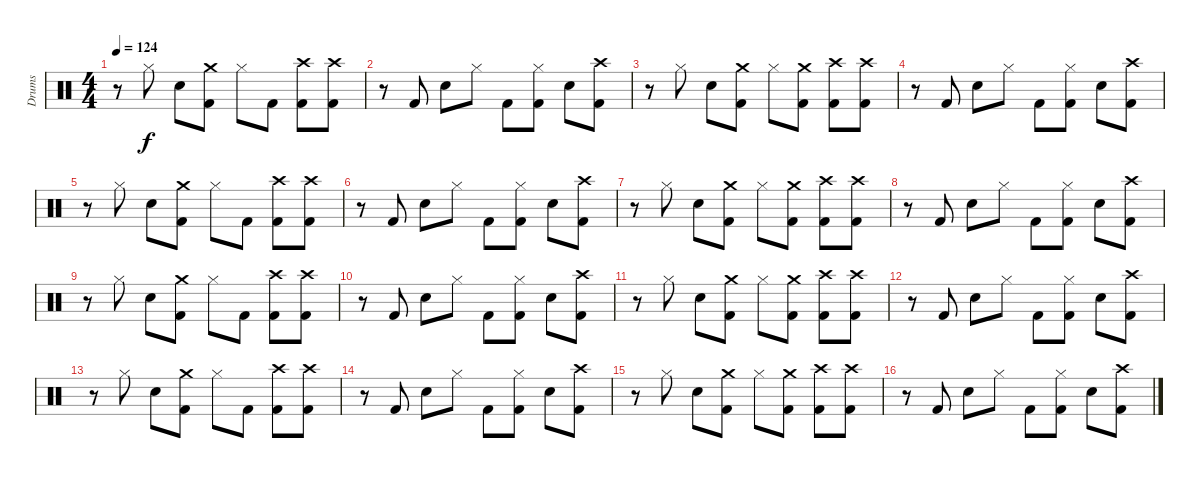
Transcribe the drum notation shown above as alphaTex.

\track ("Drums" "Drums") {instrument percussion}
\staff {score}
\articulation defaults
\ts (4 4)
\tempo 124
\clef neutral
\ks c
r.8{dy f} "Hi-Hat (closed)".8 "Snare (hit) 2".8 ("Kick (hit) 2" "Crash medium (hit)").8 "Hi-Hat (closed)".8 "Kick (hit) 2".8 ("Kick (hit) 2" "Crash high (hit)").8 ("Kick (hit) 2" "Crash high (hit)").8 |
r.8 "Kick (hit) 2".8 "Snare (hit) 2".8 "Hi-Hat (closed)".8 "Kick (hit) 2".8 ("Kick (hit) 2" "Hi-Hat (closed)").8 "Snare (hit) 2".8 ("Kick (hit) 2" "Crash high (hit)").8 |
r.8 "Hi-Hat (closed)".8 "Snare (hit) 2".8 ("Kick (hit) 2" "Crash medium (hit)").8 "Hi-Hat (closed)".8 ("Kick (hit) 2" "Crash medium (hit)").8 ("Kick (hit) 2" "Crash high (hit)").8 ("Kick (hit) 2" "Crash high (hit)").8 |
r.8 "Kick (hit) 2".8 "Snare (hit) 2".8 "Hi-Hat (closed)".8 "Kick (hit) 2".8 ("Kick (hit) 2" "Hi-Hat (closed)").8 "Snare (hit) 2".8 ("Kick (hit) 2" "Crash high (hit)").8 |
r.8 "Hi-Hat (closed)".8 "Snare (hit) 2".8 ("Kick (hit) 2" "Crash medium (hit)").8 "Hi-Hat (closed)".8 "Kick (hit) 2".8 ("Kick (hit) 2" "Crash high (hit)").8 ("Kick (hit) 2" "Crash high (hit)").8 |
r.8 "Kick (hit) 2".8 "Snare (hit) 2".8 "Hi-Hat (closed)".8 "Kick (hit) 2".8 ("Kick (hit) 2" "Hi-Hat (closed)").8 "Snare (hit) 2".8 ("Kick (hit) 2" "Crash high (hit)").8 |
r.8 "Hi-Hat (closed)".8 "Snare (hit) 2".8 ("Kick (hit) 2" "Crash medium (hit)").8 "Hi-Hat (closed)".8 ("Kick (hit) 2" "Crash medium (hit)").8 ("Kick (hit) 2" "Crash high (hit)").8 ("Kick (hit) 2" "Crash high (hit)").8 |
r.8 "Kick (hit) 2".8 "Snare (hit) 2".8 "Hi-Hat (closed)".8 "Kick (hit) 2".8 ("Kick (hit) 2" "Hi-Hat (closed)").8 "Snare (hit) 2".8 ("Kick (hit) 2" "Crash high (hit)").8 |
r.8 "Hi-Hat (closed)".8 "Snare (hit) 2".8 ("Kick (hit) 2" "Crash medium (hit)").8 "Hi-Hat (closed)".8 "Kick (hit) 2".8 ("Kick (hit) 2" "Crash high (hit)").8 ("Kick (hit) 2" "Crash high (hit)").8 |
r.8 "Kick (hit) 2".8 "Snare (hit) 2".8 "Hi-Hat (closed)".8 "Kick (hit) 2".8 ("Kick (hit) 2" "Hi-Hat (closed)").8 "Snare (hit) 2".8 ("Kick (hit) 2" "Crash high (hit)").8 |
r.8 "Hi-Hat (closed)".8 "Snare (hit) 2".8 ("Kick (hit) 2" "Crash medium (hit)").8 "Hi-Hat (closed)".8 ("Kick (hit) 2" "Crash medium (hit)").8 ("Kick (hit) 2" "Crash high (hit)").8 ("Kick (hit) 2" "Crash high (hit)").8 |
r.8 "Kick (hit) 2".8 "Snare (hit) 2".8 "Hi-Hat (closed)".8 "Kick (hit) 2".8 ("Kick (hit) 2" "Hi-Hat (closed)").8 "Snare (hit) 2".8 ("Kick (hit) 2" "Crash high (hit)").8 |
r.8 "Hi-Hat (closed)".8 "Snare (hit) 2".8 ("Kick (hit) 2" "Crash medium (hit)").8 "Hi-Hat (closed)".8 "Kick (hit) 2".8 ("Kick (hit) 2" "Crash high (hit)").8 ("Kick (hit) 2" "Crash high (hit)").8 |
r.8 "Kick (hit) 2".8 "Snare (hit) 2".8 "Hi-Hat (closed)".8 "Kick (hit) 2".8 ("Kick (hit) 2" "Hi-Hat (closed)").8 "Snare (hit) 2".8 ("Kick (hit) 2" "Crash high (hit)").8 |
r.8 "Hi-Hat (closed)".8 "Snare (hit) 2".8 ("Kick (hit) 2" "Crash medium (hit)").8 "Hi-Hat (closed)".8 ("Kick (hit) 2" "Crash medium (hit)").8 ("Kick (hit) 2" "Crash high (hit)").8 ("Kick (hit) 2" "Crash high (hit)").8 |
r.8 "Kick (hit) 2".8 "Snare (hit) 2".8 "Hi-Hat (closed)".8 "Kick (hit) 2".8 ("Kick (hit) 2" "Hi-Hat (closed)").8 "Snare (hit) 2".8 ("Kick (hit) 2" "Crash high (hit)").8
